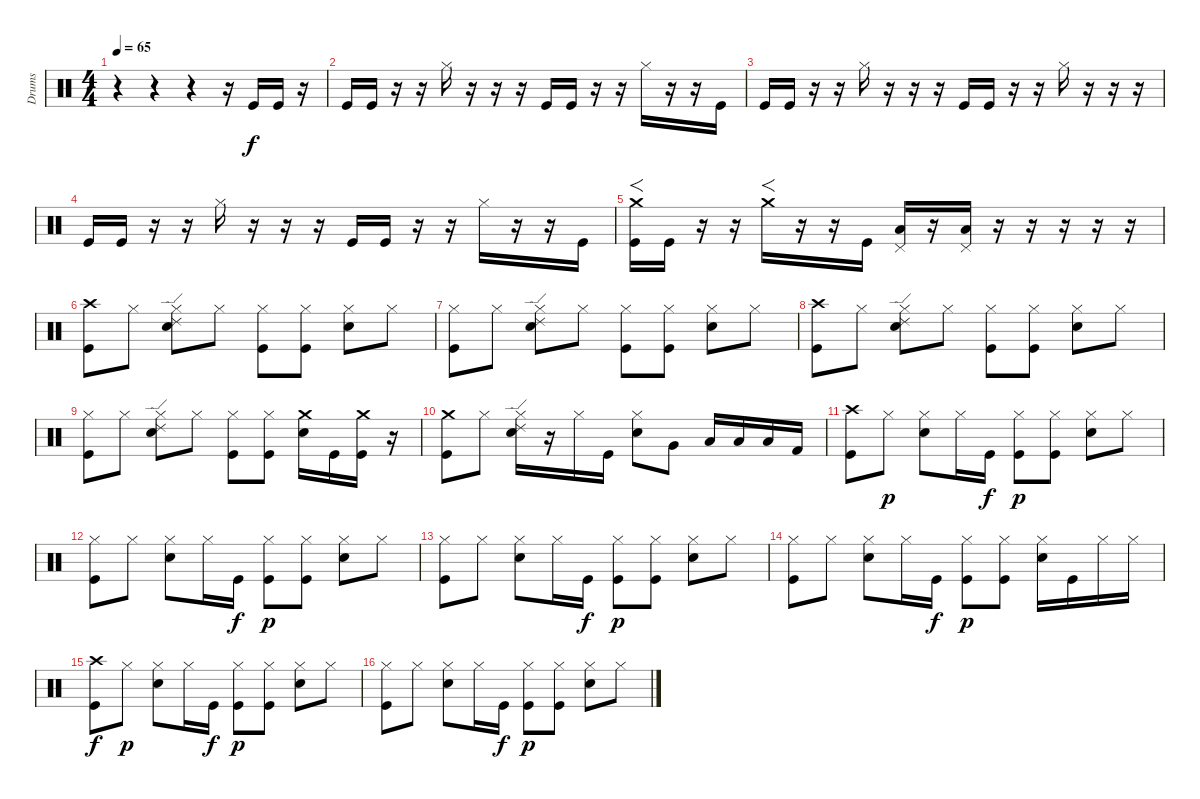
\track ("Drums" "Drums") {instrument percussion}
\staff {score}
\articulation defaults
\ts (4 4)
\tempo 65
\clef neutral
\ks c
r.4{dy f} r.4 r.4 r.16 "Kick (hit)".16 "Kick (hit)".16 r.16 |
"Kick (hit)".16 "Kick (hit)".16 r.16 r.16 "Hi-Hat (closed)".16 r.16 r.16 r.16 "Kick (hit)".16 "Kick (hit)".16 r.16 r.16 "Hi-Hat (closed)".16 r.16 r.16 "Kick (hit)".16 |
"Kick (hit)".16 "Kick (hit)".16 r.16 r.16 "Hi-Hat (closed)".16 r.16 r.16 r.16 "Kick (hit)".16 "Kick (hit)".16 r.16 r.16 "Hi-Hat (closed)".16 r.16 r.16 r.16 |
"Kick (hit)".16 "Kick (hit)".16 r.16 r.16 "Hi-Hat (closed)".16 r.16 r.16 r.16 "Kick (hit)".16 "Kick (hit)".16 r.16 r.16 "Hi-Hat (closed)".16 r.16 r.16 "Kick (hit)".16 |
("Crash medium (hit)" "Kick (hit)").16{f} "Kick (hit)".16 r.16 r.16 "Crash medium (hit)".16{f} r.16 r.16 "Kick (hit)".16 ("Pedal Hi-Hat (hit)" "Low Floor Tom (hit)").16 r.16 ("Pedal Hi-Hat (hit)" "Low Floor Tom (hit)").16 r.16 r.16 r.16 r.16 r.16 |
("Crash high (hit)" "Kick (hit)").8 "Hi-Hat (closed)".8 ("Hi-Hat (closed)" "Ride (edge) 2" "Snare (hit) 2").8 "Hi-Hat (closed)".8 ("Hi-Hat (closed)" "Kick (hit)").8 ("Hi-Hat (closed)" "Kick (hit)").8 ("Hi-Hat (closed)" "Snare (hit) 2").8 "Hi-Hat (closed)".8 |
("Hi-Hat (closed)" "Kick (hit)").8 "Hi-Hat (closed)".8 ("Hi-Hat (closed)" "Ride (edge) 2" "Snare (hit) 2").8 "Hi-Hat (closed)".8 ("Hi-Hat (closed)" "Kick (hit)").8 ("Hi-Hat (closed)" "Kick (hit)").8 ("Hi-Hat (closed)" "Snare (hit) 2").8 "Hi-Hat (closed)".8 |
("Crash high (hit)" "Kick (hit)").8 "Hi-Hat (closed)".8 ("Hi-Hat (closed)" "Ride (edge) 2" "Snare (hit) 2").8 "Hi-Hat (closed)".8 ("Hi-Hat (closed)" "Kick (hit)").8 ("Hi-Hat (closed)" "Kick (hit)").8 ("Hi-Hat (closed)" "Snare (hit) 2").8 "Hi-Hat (closed)".8 |
("Hi-Hat (closed)" "Kick (hit)").8 "Hi-Hat (closed)".8 ("Hi-Hat (closed)" "Ride (edge) 2" "Snare (hit) 2").8 "Hi-Hat (closed)".8 ("Hi-Hat (closed)" "Kick (hit)").8 ("Hi-Hat (closed)" "Kick (hit)").8 ("Crash medium (hit)" "Snare (hit) 2").16 "Kick (hit)".16 ("Crash medium (hit)" "Kick (hit)").16 r.16 |
("Crash medium (hit)" "Kick (hit)").8 "Hi-Hat (closed)".8 ("Hi-Hat (closed)" "Ride (edge) 2" "Snare (hit) 2").16 r.16 "Hi-Hat (closed)".16 "Kick (hit)".16 ("Hi-Hat (closed)" "Snare (hit) 2").8 "Very Low Tom (hit)".8 "Low Floor Tom (hit)".16 "Low Floor Tom (hit)".16 "Low Floor Tom (hit)".16 "Kick (hit) 2".16 |
("Crash high (hit)" "Kick (hit)").8 "Hi-Hat (closed)".8{dy p} ("Hi-Hat (closed)" "Snare (hit) 2").8 "Hi-Hat (closed)".16 "Kick (hit)".16{dy f} ("Hi-Hat (closed)" "Kick (hit)").8{dy p} ("Hi-Hat (closed)" "Kick (hit)").8 ("Hi-Hat (closed)" "Snare (hit) 2").8 "Hi-Hat (closed)".8 |
("Hi-Hat (closed)" "Kick (hit)").8 "Hi-Hat (closed)".8 ("Hi-Hat (closed)" "Snare (hit) 2").8 "Hi-Hat (closed)".16 "Kick (hit)".16{dy f} ("Hi-Hat (closed)" "Kick (hit)").8{dy p} ("Hi-Hat (closed)" "Kick (hit)").8 ("Hi-Hat (closed)" "Snare (hit) 2").8 "Hi-Hat (closed)".8 |
("Hi-Hat (closed)" "Kick (hit)").8 "Hi-Hat (closed)".8 ("Hi-Hat (closed)" "Snare (hit) 2").8 "Hi-Hat (closed)".16 "Kick (hit)".16{dy f} ("Hi-Hat (closed)" "Kick (hit)").8{dy p} ("Hi-Hat (closed)" "Kick (hit)").8 ("Hi-Hat (closed)" "Snare (hit) 2").8 "Hi-Hat (closed)".8 |
("Hi-Hat (closed)" "Kick (hit)").8 "Hi-Hat (closed)".8 ("Hi-Hat (closed)" "Snare (hit) 2").8 "Hi-Hat (closed)".16 "Kick (hit)".16{dy f} ("Hi-Hat (closed)" "Kick (hit)").8{dy p} ("Hi-Hat (closed)" "Kick (hit)").8 ("Hi-Hat (closed)" "Snare (hit) 2").16 "Kick (hit)".16 "Hi-Hat (closed)".16 "Hi-Hat (closed)".16 |
("Crash high (hit)" "Kick (hit)").8{dy f} "Hi-Hat (closed)".8{dy p} ("Hi-Hat (closed)" "Snare (hit) 2").8 "Hi-Hat (closed)".16 "Kick (hit)".16{dy f} ("Hi-Hat (closed)" "Kick (hit)").8{dy p} ("Hi-Hat (closed)" "Kick (hit)").8 ("Hi-Hat (closed)" "Snare (hit) 2").8 "Hi-Hat (closed)".8 |
("Hi-Hat (closed)" "Kick (hit)").8 "Hi-Hat (closed)".8 ("Hi-Hat (closed)" "Snare (hit) 2").8 "Hi-Hat (closed)".16 "Kick (hit)".16{dy f} ("Hi-Hat (closed)" "Kick (hit)").8{dy p} ("Hi-Hat (closed)" "Kick (hit)").8 ("Hi-Hat (closed)" "Snare (hit) 2").8 "Hi-Hat (closed)".8
